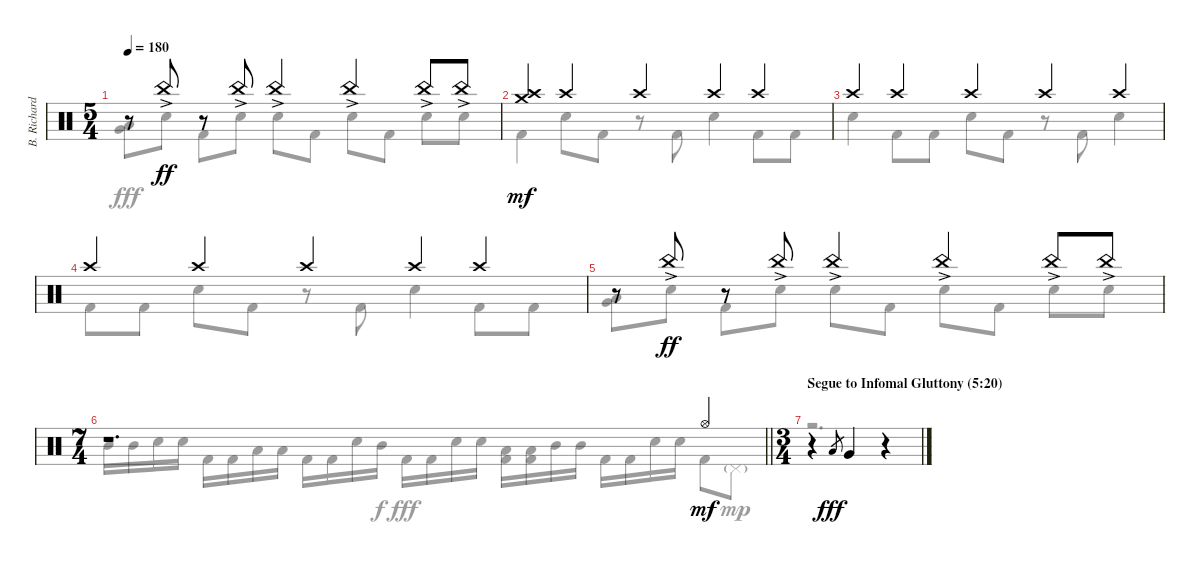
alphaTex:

\track ("B. Richardson Drums" "B. Richard") {instrument percussion}
\staff {score}
\articulation defaults
\voice
\ts (5 4)
\tempo 180
\clef neutral
\ks c
r.8{dy mf} "China (hit)"{ac}.8{dy ff} r.8 "China (hit)"{ac}.8 "China (hit)"{ac}.4 "China (hit)"{ac}.4 "China (hit)"{ac}.8 "China (hit)"{ac}.8 |
("Crash high (hit)" "Crash medium (hit)").4{dy mf} "Crash high (hit)".4 "Crash high (hit)".4 "Crash high (hit)".4 "Crash high (hit)".4 |
"Crash high (hit)".4 "Crash high (hit)".4 "Crash high (hit)".4 "Crash high (hit)".4 "Crash high (hit)".4 |
"Crash high (hit)".4 "Crash high (hit)".4 "Crash high (hit)".4 "Crash high (hit)".4 "Crash high (hit)".4 |
r.8 "China (hit)"{ac}.8{dy ff} r.8 "China (hit)"{ac}.8 "China (hit)"{ac}.4 "China (hit)"{ac}.4 "China (hit)"{ac}.8 "China (hit)"{ac}.8 |
\ts (7 4)
\barLineRight lightlight
r.1{d} "Hi-Hat (open)".4{dy mf} |
\ts (3 4)
\section ("" "Segue to Infomal Gluttony (5:20)")
r.4 "Low Tom (hit)".8{gr dy fff} "Very Low Tom (hit)".4 r.4
\voice
\clef neutral
\ottava regular
\simile none
\ks c
("Low Tom (hit)" "Very Low Tom (hit)").8{dy fff} "Electric Snare (hit)".8 "Kick (hit) 2".8 "Electric Snare (hit)".8 "Electric Snare (hit)".8 "Kick (hit) 2".8 "Electric Snare (hit)".8 "Kick (hit) 2".8 "Electric Snare (hit)".8 "Electric Snare (hit)".8 |
"Kick (hit) 2".4 "Electric Snare (hit)".8 "Kick (hit) 2".8 r.8 "Kick (hit) 2".8 "Electric Snare (hit)".4 "Kick (hit) 2".8 "Kick (hit) 2".8 |
"Electric Snare (hit)".4 "Kick (hit) 2".8 "Kick (hit) 2".8 "Electric Snare (hit)".8 "Kick (hit) 2".8 r.8 "Kick (hit) 2".8 "Electric Snare (hit)".4 |
"Kick (hit) 2".8 "Kick (hit) 2".8 "Electric Snare (hit)".8 "Kick (hit) 2".8 r.8 "Kick (hit) 2".8 "Electric Snare (hit)".4 "Kick (hit) 2".8 "Kick (hit) 2".8 |
("Low Tom (hit)" "Very Low Tom (hit)").8 "Electric Snare (hit)".8 "Kick (hit) 2".8 "Electric Snare (hit)".8 "Electric Snare (hit)".8 "Kick (hit) 2".8 "Electric Snare (hit)".8 "Kick (hit) 2".8 "Electric Snare (hit)".8 "Electric Snare (hit)".8 |
\barLineRight lightlight "Mid Tom (hit)".16 "Mid Tom (hit)".16 "Electric Snare (hit)".16 "Electric Snare (hit)".16 "Kick (hit) 2".16 "Kick (hit) 2".16 "Low Tom (hit)".16 "Low Tom (hit)".16 "Kick (hit) 2".16 "Kick (hit) 2".16 "Electric Snare (hit)".16 "Mid Tom (hit)".16{dy f} "Kick (hit) 2".16{dy fff} "Kick (hit) 2".16 "Electric Snare (hit)".16 "Electric Snare (hit)".16
("Low Tom (hit)" "Kick (hit) 2").16 ("Low Tom (hit)" "Kick (hit) 2").16 "Mid Tom (hit)".16 "Mid Tom (hit)".16 "Kick (hit) 2".16 "Kick (hit) 2".16 "Electric Snare (hit)".16 "Electric Snare (hit)".16 "Kick (hit) 2".8 "Pedal Hi-Hat (hit)"{g}.8{dy mp} |
r.2{d}
